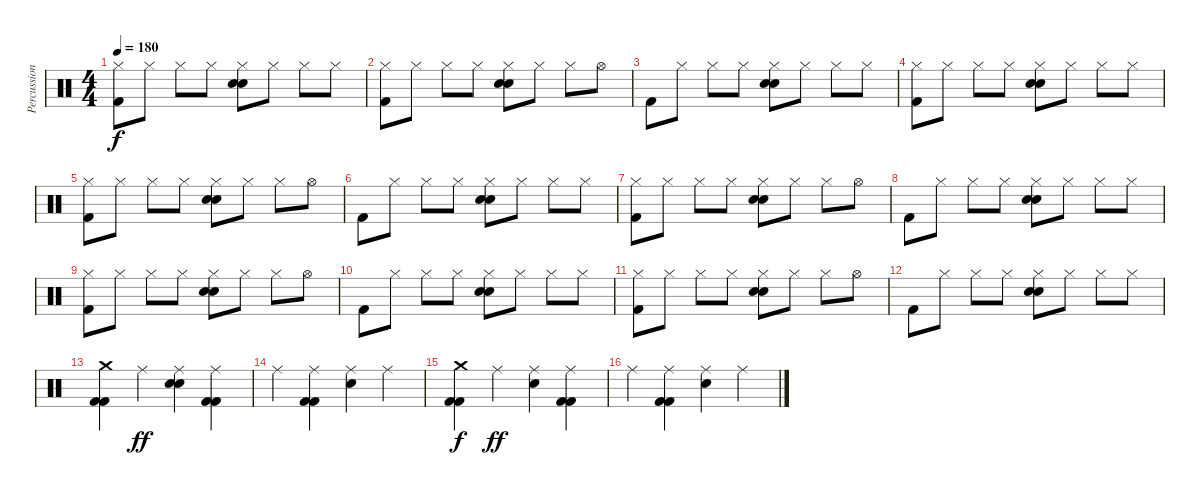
\track ("Percussion" "Percussion") {instrument percussion}
\staff {score}
\articulation defaults
\ts (4 4)
\tempo 180
\clef neutral
\ks c
("Hi-Hat (closed)" "Kick (hit) 2").8{dy f} "Hi-Hat (closed)".8 "Hi-Hat (closed)".8 "Hi-Hat (closed)".8 ("Hi-Hat (closed)" "Electric Snare (hit)" "Snare (hit) 2").8 "Hi-Hat (closed)".8 "Hi-Hat (closed)".8 "Hi-Hat (closed)".8 |
("Hi-Hat (closed)" "Kick (hit) 2").8 "Hi-Hat (closed)".8 "Hi-Hat (closed)".8 "Hi-Hat (closed)".8 ("Hi-Hat (closed)" "Electric Snare (hit)" "Snare (hit) 2").8 "Hi-Hat (closed)".8 "Hi-Hat (closed)".8 "Hi-Hat (open)".8 |
"Kick (hit) 2".8 "Hi-Hat (closed)".8 "Hi-Hat (closed)".8 "Hi-Hat (closed)".8 ("Hi-Hat (closed)" "Electric Snare (hit)" "Snare (hit) 2").8 "Hi-Hat (closed)".8 "Hi-Hat (closed)".8 "Hi-Hat (closed)".8 |
("Hi-Hat (closed)" "Kick (hit) 2").8 "Hi-Hat (closed)".8 "Hi-Hat (closed)".8 "Hi-Hat (closed)".8 ("Hi-Hat (closed)" "Electric Snare (hit)" "Snare (hit) 2").8 "Hi-Hat (closed)".8 "Hi-Hat (closed)".8 "Hi-Hat (closed)".8 |
("Hi-Hat (closed)" "Kick (hit) 2").8 "Hi-Hat (closed)".8 "Hi-Hat (closed)".8 "Hi-Hat (closed)".8 ("Hi-Hat (closed)" "Electric Snare (hit)" "Snare (hit) 2").8 "Hi-Hat (closed)".8 "Hi-Hat (closed)".8 "Hi-Hat (open)".8 |
"Kick (hit) 2".8 "Hi-Hat (closed)".8 "Hi-Hat (closed)".8 "Hi-Hat (closed)".8 ("Hi-Hat (closed)" "Electric Snare (hit)" "Snare (hit) 2").8 "Hi-Hat (closed)".8 "Hi-Hat (closed)".8 "Hi-Hat (closed)".8 |
("Hi-Hat (closed)" "Kick (hit) 2").8 "Hi-Hat (closed)".8 "Hi-Hat (closed)".8 "Hi-Hat (closed)".8 ("Hi-Hat (closed)" "Electric Snare (hit)" "Snare (hit) 2").8 "Hi-Hat (closed)".8 "Hi-Hat (closed)".8 "Hi-Hat (open)".8 |
"Kick (hit) 2".8 "Hi-Hat (closed)".8 "Hi-Hat (closed)".8 "Hi-Hat (closed)".8 ("Hi-Hat (closed)" "Electric Snare (hit)" "Snare (hit) 2").8 "Hi-Hat (closed)".8 "Hi-Hat (closed)".8 "Hi-Hat (closed)".8 |
("Hi-Hat (closed)" "Kick (hit) 2").8 "Hi-Hat (closed)".8 "Hi-Hat (closed)".8 "Hi-Hat (closed)".8 ("Hi-Hat (closed)" "Electric Snare (hit)" "Snare (hit) 2").8 "Hi-Hat (closed)".8 "Hi-Hat (closed)".8 "Hi-Hat (open)".8 |
"Kick (hit) 2".8 "Hi-Hat (closed)".8 "Hi-Hat (closed)".8 "Hi-Hat (closed)".8 ("Hi-Hat (closed)" "Electric Snare (hit)" "Snare (hit) 2").8 "Hi-Hat (closed)".8 "Hi-Hat (closed)".8 "Hi-Hat (closed)".8 |
("Hi-Hat (closed)" "Kick (hit) 2").8 "Hi-Hat (closed)".8 "Hi-Hat (closed)".8 "Hi-Hat (closed)".8 ("Hi-Hat (closed)" "Electric Snare (hit)" "Snare (hit) 2").8 "Hi-Hat (closed)".8 "Hi-Hat (closed)".8 "Hi-Hat (open)".8 |
"Kick (hit) 2".8 "Hi-Hat (closed)".8 "Hi-Hat (closed)".8 "Hi-Hat (closed)".8 ("Hi-Hat (closed)" "Electric Snare (hit)" "Snare (hit) 2").8 "Hi-Hat (closed)".8 "Hi-Hat (closed)".8 "Hi-Hat (closed)".8 |
("Crash medium (hit)" "Kick (hit) 2" "Kick (hit) 2").4{volume 13} "Ride (middle)".4{dy ff} ("Ride (middle)" "Electric Snare (hit)" "Snare (hit) 2").4 ("Ride (middle)" "Kick (hit) 2" "Kick (hit) 2").4 |
"Ride (middle)".4 ("Ride (middle)" "Kick (hit) 2" "Kick (hit) 2").4 ("Ride (middle)" "Electric Snare (hit)").4 "Ride (middle)".4 |
("Crash medium (hit)" "Kick (hit) 2" "Kick (hit) 2").4{dy f} "Ride (middle)".4{dy ff} ("Ride (middle)" "Electric Snare (hit)").4 ("Ride (middle)" "Kick (hit) 2" "Kick (hit) 2").4 |
"Ride (middle)".4 ("Ride (middle)" "Kick (hit) 2" "Kick (hit) 2").4 ("Ride (middle)" "Electric Snare (hit)").4 "Ride (middle)".4
